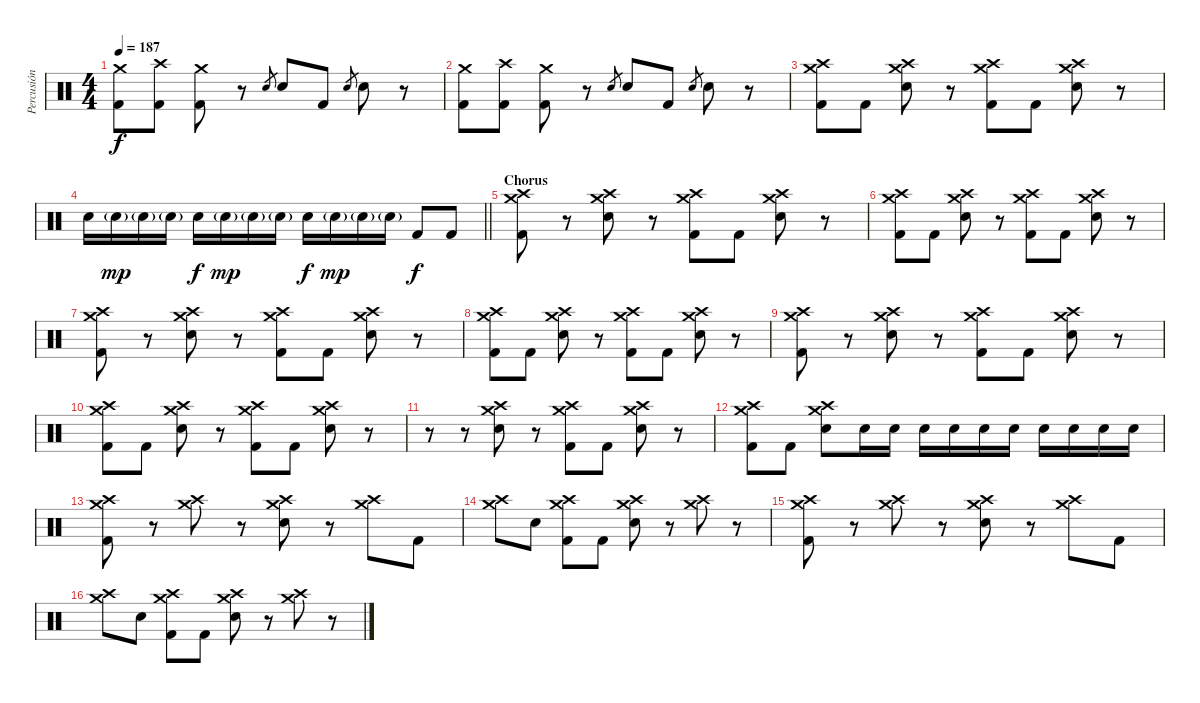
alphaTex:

\track ("Percusión" "Percusión") {instrument percussion}
\staff {score}
\articulation defaults
\ts (4 4)
\tempo 187
\clef neutral
\ks c
("Crash medium (hit)" "Kick (hit) 2").8{dy f} ("Crash high (hit)" "Kick (hit) 2").8 ("Crash medium (hit)" "Kick (hit) 2").8 r.8 "Snare (hit) 2".8{gr} "Snare (hit) 2".8 "Kick (hit) 2".8 "Snare (hit) 2".8{gr} "Snare (hit) 2".8 r.8 |
("Crash medium (hit)" "Kick (hit) 2").8 ("Crash high (hit)" "Kick (hit) 2").8 ("Crash medium (hit)" "Kick (hit) 2").8 r.8 "Snare (hit) 2".8{gr} "Snare (hit) 2".8 "Kick (hit) 2".8 "Snare (hit) 2".8{gr} "Snare (hit) 2".8 r.8 |
("Crash high (hit)" "Crash medium (hit)" "Kick (hit) 2").8 "Kick (hit) 2".8 ("Crash high (hit)" "Crash medium (hit)" "Snare (hit) 2").8 r.8 ("Crash high (hit)" "Crash medium (hit)" "Kick (hit) 2").8 "Kick (hit) 2".8 ("Crash high (hit)" "Crash medium (hit)" "Snare (hit) 2").8 r.8 |
\barLineRight lightlight "Snare (hit) 2".16 "Snare (hit) 2"{g}.16{dy mp} "Snare (hit) 2"{g}.16 "Snare (hit) 2"{g}.16 "Snare (hit) 2".16{dy f} "Snare (hit) 2"{g}.16{dy mp} "Snare (hit) 2"{g}.16 "Snare (hit) 2"{g}.16 "Snare (hit) 2".16{dy f} "Snare (hit) 2"{g}.16{dy mp} "Snare (hit) 2"{g}.16 "Snare (hit) 2"{g}.16 "Kick (hit) 2".8{dy f} "Kick (hit) 2".8
|
\section ("" "Chorus")
("Crash high (hit)" "Crash medium (hit)" "Kick (hit) 2").8 r.8 ("Crash high (hit)" "Crash medium (hit)" "Snare (hit) 2").8 r.8 ("Crash high (hit)" "Crash medium (hit)" "Kick (hit) 2").8 "Kick (hit) 2".8 ("Crash high (hit)" "Crash medium (hit)" "Snare (hit) 2").8 r.8 |
("Crash high (hit)" "Crash medium (hit)" "Kick (hit) 2").8 "Kick (hit) 2".8 ("Crash high (hit)" "Crash medium (hit)" "Snare (hit) 2").8 r.8 ("Crash high (hit)" "Crash medium (hit)" "Kick (hit) 2").8 "Kick (hit) 2".8 ("Crash high (hit)" "Crash medium (hit)" "Snare (hit) 2").8 r.8 |
("Crash high (hit)" "Crash medium (hit)" "Kick (hit) 2").8 r.8 ("Crash high (hit)" "Crash medium (hit)" "Snare (hit) 2").8 r.8 ("Crash high (hit)" "Crash medium (hit)" "Kick (hit) 2").8 "Kick (hit) 2".8 ("Crash high (hit)" "Crash medium (hit)" "Snare (hit) 2").8 r.8 |
("Crash high (hit)" "Crash medium (hit)" "Kick (hit) 2").8 "Kick (hit) 2".8 ("Crash high (hit)" "Crash medium (hit)" "Snare (hit) 2").8 r.8 ("Crash high (hit)" "Crash medium (hit)" "Kick (hit) 2").8 "Kick (hit) 2".8 ("Crash high (hit)" "Crash medium (hit)" "Snare (hit) 2").8 r.8 |
("Crash high (hit)" "Crash medium (hit)" "Kick (hit) 2").8 r.8 ("Crash high (hit)" "Crash medium (hit)" "Snare (hit) 2").8 r.8 ("Crash high (hit)" "Crash medium (hit)" "Kick (hit) 2").8 "Kick (hit) 2".8 ("Crash high (hit)" "Crash medium (hit)" "Snare (hit) 2").8 r.8 |
("Crash high (hit)" "Crash medium (hit)" "Kick (hit) 2").8 "Kick (hit) 2".8 ("Crash high (hit)" "Crash medium (hit)" "Snare (hit) 2").8 r.8 ("Crash high (hit)" "Crash medium (hit)" "Kick (hit) 2").8 "Kick (hit) 2".8 ("Crash high (hit)" "Crash medium (hit)" "Snare (hit) 2").8 r.8 |
r.8 r.8 ("Crash high (hit)" "Crash medium (hit)" "Snare (hit) 2").8 r.8 ("Crash high (hit)" "Crash medium (hit)" "Kick (hit) 2").8 "Kick (hit) 2".8 ("Crash high (hit)" "Crash medium (hit)" "Snare (hit) 2").8 r.8 |
("Crash high (hit)" "Crash medium (hit)" "Kick (hit) 2").8 "Kick (hit) 2".8 ("Crash high (hit)" "Crash medium (hit)" "Snare (hit) 2").8 "Snare (hit) 2".16 "Snare (hit) 2".16 "Snare (hit) 2".16 "Snare (hit) 2".16 "Snare (hit) 2".16 "Snare (hit) 2".16 "Snare (hit) 2".16 "Snare (hit) 2".16 "Snare (hit) 2".16 "Snare (hit) 2".16 |
("Crash high (hit)" "Crash medium (hit)" "Kick (hit) 2").8 r.8 ("Crash high (hit)" "Crash medium (hit)").8 r.8 ("Crash high (hit)" "Crash medium (hit)" "Snare (hit) 2").8 r.8 ("Crash high (hit)" "Crash medium (hit)").8 "Kick (hit) 2".8 |
("Crash high (hit)" "Crash medium (hit)").8 "Snare (hit) 2".8 ("Crash high (hit)" "Crash medium (hit)" "Kick (hit) 2").8 "Kick (hit) 2".8 ("Crash high (hit)" "Crash medium (hit)" "Snare (hit) 2").8 r.8 ("Crash high (hit)" "Crash medium (hit)").8 r.8 |
("Crash high (hit)" "Crash medium (hit)" "Kick (hit) 2").8 r.8 ("Crash high (hit)" "Crash medium (hit)").8 r.8 ("Crash high (hit)" "Crash medium (hit)" "Snare (hit) 2").8 r.8 ("Crash high (hit)" "Crash medium (hit)").8 "Kick (hit) 2".8 |
("Crash high (hit)" "Crash medium (hit)").8 "Snare (hit) 2".8 ("Crash high (hit)" "Crash medium (hit)" "Kick (hit) 2").8 "Kick (hit) 2".8 ("Crash high (hit)" "Crash medium (hit)" "Snare (hit) 2").8 r.8 ("Crash high (hit)" "Crash medium (hit)").8 r.8
